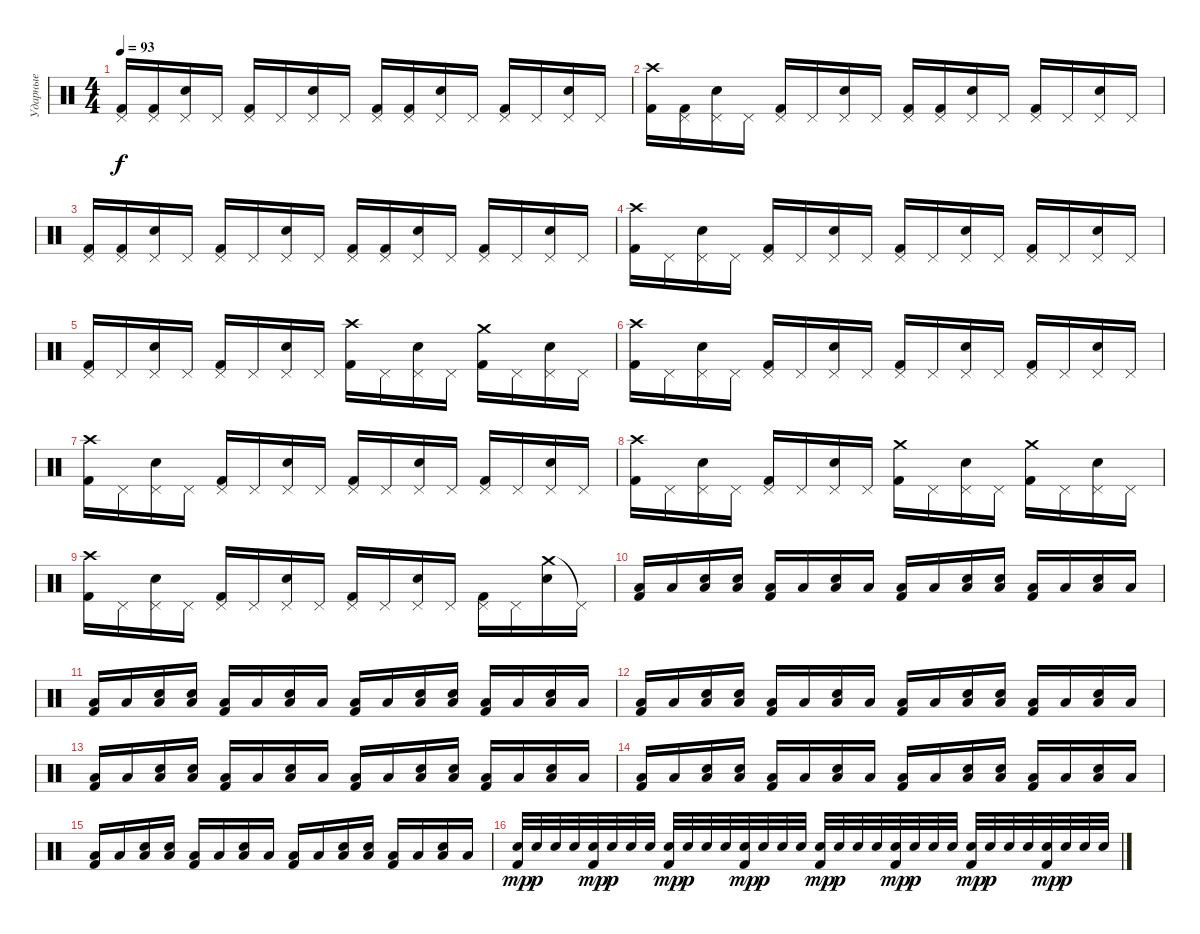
\track ("Ударные" "Ударные") {instrument percussion}
\staff {score}
\articulation defaults
\ts (4 4)
\tempo 93
\clef neutral
\ks c
("Pedal Hi-Hat (hit)" "Kick (hit) 2").16{dy f} ("Pedal Hi-Hat (hit)" "Kick (hit) 2").16 ("Pedal Hi-Hat (hit)" "Electric Snare (hit)").16 "Pedal Hi-Hat (hit)".16 ("Pedal Hi-Hat (hit)" "Kick (hit) 2").16 "Pedal Hi-Hat (hit)".16 ("Pedal Hi-Hat (hit)" "Electric Snare (hit)").16 "Pedal Hi-Hat (hit)".16 ("Pedal Hi-Hat (hit)" "Kick (hit) 2").16 ("Pedal Hi-Hat (hit)" "Kick (hit) 2").16 ("Pedal Hi-Hat (hit)" "Electric Snare (hit)").16 "Pedal Hi-Hat (hit)".16 ("Pedal Hi-Hat (hit)" "Kick (hit) 2").16 "Pedal Hi-Hat (hit)".16 ("Pedal Hi-Hat (hit)" "Electric Snare (hit)").16 "Pedal Hi-Hat (hit)".16 |
("Crash high (hit)" "Kick (hit) 2").16 ("Pedal Hi-Hat (hit)" "Kick (hit) 2").16 ("Pedal Hi-Hat (hit)" "Electric Snare (hit)").16 "Pedal Hi-Hat (hit)".16 ("Pedal Hi-Hat (hit)" "Kick (hit) 2").16 "Pedal Hi-Hat (hit)".16 ("Pedal Hi-Hat (hit)" "Electric Snare (hit)").16 "Pedal Hi-Hat (hit)".16 ("Pedal Hi-Hat (hit)" "Kick (hit) 2").16 ("Pedal Hi-Hat (hit)" "Kick (hit) 2").16 ("Pedal Hi-Hat (hit)" "Electric Snare (hit)").16 "Pedal Hi-Hat (hit)".16 ("Pedal Hi-Hat (hit)" "Kick (hit) 2").16 "Pedal Hi-Hat (hit)".16 ("Pedal Hi-Hat (hit)" "Electric Snare (hit)").16 "Pedal Hi-Hat (hit)".16 |
("Pedal Hi-Hat (hit)" "Kick (hit) 2").16 ("Pedal Hi-Hat (hit)" "Kick (hit) 2").16 ("Pedal Hi-Hat (hit)" "Electric Snare (hit)").16 "Pedal Hi-Hat (hit)".16 ("Pedal Hi-Hat (hit)" "Kick (hit) 2").16 "Pedal Hi-Hat (hit)".16 ("Pedal Hi-Hat (hit)" "Electric Snare (hit)").16 "Pedal Hi-Hat (hit)".16 ("Pedal Hi-Hat (hit)" "Kick (hit) 2").16 ("Pedal Hi-Hat (hit)" "Kick (hit) 2").16 ("Pedal Hi-Hat (hit)" "Electric Snare (hit)").16 "Pedal Hi-Hat (hit)".16 ("Pedal Hi-Hat (hit)" "Kick (hit) 2").16 "Pedal Hi-Hat (hit)".16 ("Pedal Hi-Hat (hit)" "Electric Snare (hit)").16 "Pedal Hi-Hat (hit)".16 |
("Crash high (hit)" "Kick (hit) 2").16 "Pedal Hi-Hat (hit)".16 ("Pedal Hi-Hat (hit)" "Electric Snare (hit)").16 "Pedal Hi-Hat (hit)".16 ("Pedal Hi-Hat (hit)" "Kick (hit) 2").16 "Pedal Hi-Hat (hit)".16 ("Pedal Hi-Hat (hit)" "Electric Snare (hit)").16 "Pedal Hi-Hat (hit)".16 ("Pedal Hi-Hat (hit)" "Kick (hit) 2").16 "Pedal Hi-Hat (hit)".16 ("Pedal Hi-Hat (hit)" "Electric Snare (hit)").16 "Pedal Hi-Hat (hit)".16 ("Pedal Hi-Hat (hit)" "Kick (hit) 2").16 "Pedal Hi-Hat (hit)".16 ("Pedal Hi-Hat (hit)" "Electric Snare (hit)").16 "Pedal Hi-Hat (hit)".16 |
("Pedal Hi-Hat (hit)" "Kick (hit) 2").16 "Pedal Hi-Hat (hit)".16 ("Pedal Hi-Hat (hit)" "Electric Snare (hit)").16 "Pedal Hi-Hat (hit)".16 ("Pedal Hi-Hat (hit)" "Kick (hit) 2").16 "Pedal Hi-Hat (hit)".16 ("Pedal Hi-Hat (hit)" "Electric Snare (hit)").16 "Pedal Hi-Hat (hit)".16 ("Crash high (hit)" "Kick (hit) 2").16 "Pedal Hi-Hat (hit)".16 ("Pedal Hi-Hat (hit)" "Electric Snare (hit)").16 "Pedal Hi-Hat (hit)".16 ("Crash medium (hit)" "Kick (hit) 2").16 "Pedal Hi-Hat (hit)".16 ("Pedal Hi-Hat (hit)" "Electric Snare (hit)").16 "Pedal Hi-Hat (hit)".16 |
("Crash high (hit)" "Kick (hit) 2").16 "Pedal Hi-Hat (hit)".16 ("Pedal Hi-Hat (hit)" "Electric Snare (hit)").16 "Pedal Hi-Hat (hit)".16 ("Pedal Hi-Hat (hit)" "Kick (hit) 2").16 "Pedal Hi-Hat (hit)".16 ("Pedal Hi-Hat (hit)" "Electric Snare (hit)").16 "Pedal Hi-Hat (hit)".16 ("Pedal Hi-Hat (hit)" "Kick (hit) 2").16 "Pedal Hi-Hat (hit)".16 ("Pedal Hi-Hat (hit)" "Electric Snare (hit)").16 "Pedal Hi-Hat (hit)".16 ("Pedal Hi-Hat (hit)" "Kick (hit) 2").16 "Pedal Hi-Hat (hit)".16 ("Pedal Hi-Hat (hit)" "Electric Snare (hit)").16 "Pedal Hi-Hat (hit)".16 |
("Crash high (hit)" "Kick (hit) 2").16 "Pedal Hi-Hat (hit)".16 ("Pedal Hi-Hat (hit)" "Electric Snare (hit)").16 "Pedal Hi-Hat (hit)".16 ("Pedal Hi-Hat (hit)" "Kick (hit) 2").16 "Pedal Hi-Hat (hit)".16 ("Pedal Hi-Hat (hit)" "Electric Snare (hit)").16 "Pedal Hi-Hat (hit)".16 ("Pedal Hi-Hat (hit)" "Kick (hit) 2").16 "Pedal Hi-Hat (hit)".16 ("Pedal Hi-Hat (hit)" "Electric Snare (hit)").16 "Pedal Hi-Hat (hit)".16 ("Pedal Hi-Hat (hit)" "Kick (hit) 2").16 "Pedal Hi-Hat (hit)".16 ("Pedal Hi-Hat (hit)" "Electric Snare (hit)").16 "Pedal Hi-Hat (hit)".16 |
("Crash high (hit)" "Kick (hit) 2").16 "Pedal Hi-Hat (hit)".16 ("Pedal Hi-Hat (hit)" "Electric Snare (hit)").16 "Pedal Hi-Hat (hit)".16 ("Pedal Hi-Hat (hit)" "Kick (hit) 2").16 "Pedal Hi-Hat (hit)".16 ("Pedal Hi-Hat (hit)" "Electric Snare (hit)").16 "Pedal Hi-Hat (hit)".16 ("Crash medium (hit)" "Kick (hit) 2").16 "Pedal Hi-Hat (hit)".16 ("Pedal Hi-Hat (hit)" "Electric Snare (hit)").16 "Pedal Hi-Hat (hit)".16 ("Crash medium (hit)" "Kick (hit) 2").16 "Pedal Hi-Hat (hit)".16 ("Pedal Hi-Hat (hit)" "Electric Snare (hit)").16 "Pedal Hi-Hat (hit)".16 |
("Crash high (hit)" "Kick (hit) 2").16 "Pedal Hi-Hat (hit)".16 ("Pedal Hi-Hat (hit)" "Electric Snare (hit)").16 "Pedal Hi-Hat (hit)".16 ("Pedal Hi-Hat (hit)" "Kick (hit) 2").16 "Pedal Hi-Hat (hit)".16 ("Pedal Hi-Hat (hit)" "Electric Snare (hit)").16 "Pedal Hi-Hat (hit)".16 ("Pedal Hi-Hat (hit)" "Kick (hit) 2").16 "Pedal Hi-Hat (hit)".16 ("Pedal Hi-Hat (hit)" "Electric Snare (hit)").16 "Pedal Hi-Hat (hit)".16 ("Pedal Hi-Hat (hit)" "Kick (hit) 2").16 "Pedal Hi-Hat (hit)".16 ("Crash medium (hit)" "Electric Snare (hit)").16 "Pedal Hi-Hat (hit)"{t}.16 |
("Low Floor Tom (hit)" "Kick (hit) 2").16 "Low Floor Tom (hit)".16 ("Low Floor Tom (hit)" "Electric Snare (hit)").16 ("Low Floor Tom (hit)" "Electric Snare (hit)").16 ("Low Floor Tom (hit)" "Kick (hit) 2").16 "Low Floor Tom (hit)".16 ("Low Floor Tom (hit)" "Electric Snare (hit)").16 "Low Floor Tom (hit)".16 ("Low Floor Tom (hit)" "Kick (hit) 2").16 "Low Floor Tom (hit)".16 ("Low Floor Tom (hit)" "Electric Snare (hit)").16 ("Low Floor Tom (hit)" "Electric Snare (hit)").16 ("Low Floor Tom (hit)" "Kick (hit) 2").16 "Low Floor Tom (hit)".16 ("Low Floor Tom (hit)" "Electric Snare (hit)").16 "Low Floor Tom (hit)".16 |
("Low Floor Tom (hit)" "Kick (hit) 2").16 "Low Floor Tom (hit)".16 ("Low Floor Tom (hit)" "Electric Snare (hit)").16 ("Low Floor Tom (hit)" "Electric Snare (hit)").16 ("Low Floor Tom (hit)" "Kick (hit) 2").16 "Low Floor Tom (hit)".16 ("Low Floor Tom (hit)" "Electric Snare (hit)").16 "Low Floor Tom (hit)".16 ("Low Floor Tom (hit)" "Kick (hit) 2").16 "Low Floor Tom (hit)".16 ("Low Floor Tom (hit)" "Electric Snare (hit)").16 ("Low Floor Tom (hit)" "Electric Snare (hit)").16 ("Low Floor Tom (hit)" "Kick (hit) 2").16 "Low Floor Tom (hit)".16 ("Low Floor Tom (hit)" "Electric Snare (hit)").16 "Low Floor Tom (hit)".16 |
("Low Floor Tom (hit)" "Kick (hit) 2").16 "Low Floor Tom (hit)".16 ("Low Floor Tom (hit)" "Electric Snare (hit)").16 ("Low Floor Tom (hit)" "Electric Snare (hit)").16 ("Low Floor Tom (hit)" "Kick (hit) 2").16 "Low Floor Tom (hit)".16 ("Low Floor Tom (hit)" "Electric Snare (hit)").16 "Low Floor Tom (hit)".16 ("Low Floor Tom (hit)" "Kick (hit) 2").16 "Low Floor Tom (hit)".16 ("Low Floor Tom (hit)" "Electric Snare (hit)").16 ("Low Floor Tom (hit)" "Electric Snare (hit)").16 ("Low Floor Tom (hit)" "Kick (hit) 2").16 "Low Floor Tom (hit)".16 ("Low Floor Tom (hit)" "Electric Snare (hit)").16 "Low Floor Tom (hit)".16 |
("Low Floor Tom (hit)" "Kick (hit) 2").16 "Low Floor Tom (hit)".16 ("Low Floor Tom (hit)" "Electric Snare (hit)").16 ("Low Floor Tom (hit)" "Electric Snare (hit)").16 ("Low Floor Tom (hit)" "Kick (hit) 2").16 "Low Floor Tom (hit)".16 ("Low Floor Tom (hit)" "Electric Snare (hit)").16 "Low Floor Tom (hit)".16 ("Low Floor Tom (hit)" "Kick (hit) 2").16 "Low Floor Tom (hit)".16 ("Low Floor Tom (hit)" "Electric Snare (hit)").16 ("Low Floor Tom (hit)" "Electric Snare (hit)").16 ("Low Floor Tom (hit)" "Kick (hit) 2").16 "Low Floor Tom (hit)".16 ("Low Floor Tom (hit)" "Electric Snare (hit)").16 "Low Floor Tom (hit)".16 |
("Low Floor Tom (hit)" "Kick (hit) 2").16 "Low Floor Tom (hit)".16 ("Low Floor Tom (hit)" "Electric Snare (hit)").16 ("Low Floor Tom (hit)" "Electric Snare (hit)").16 ("Low Floor Tom (hit)" "Kick (hit) 2").16 "Low Floor Tom (hit)".16 ("Low Floor Tom (hit)" "Electric Snare (hit)").16 "Low Floor Tom (hit)".16 ("Low Floor Tom (hit)" "Kick (hit) 2").16 "Low Floor Tom (hit)".16 ("Low Floor Tom (hit)" "Electric Snare (hit)").16 ("Low Floor Tom (hit)" "Electric Snare (hit)").16 ("Low Floor Tom (hit)" "Kick (hit) 2").16 "Low Floor Tom (hit)".16 ("Low Floor Tom (hit)" "Electric Snare (hit)").16 "Low Floor Tom (hit)".16 |
("Low Floor Tom (hit)" "Kick (hit) 2").16 "Low Floor Tom (hit)".16 ("Low Floor Tom (hit)" "Electric Snare (hit)").16 ("Low Floor Tom (hit)" "Electric Snare (hit)").16 ("Low Floor Tom (hit)" "Kick (hit) 2").16 "Low Floor Tom (hit)".16 ("Low Floor Tom (hit)" "Electric Snare (hit)").16 "Low Floor Tom (hit)".16 ("Low Floor Tom (hit)" "Kick (hit) 2").16 "Low Floor Tom (hit)".16 ("Low Floor Tom (hit)" "Electric Snare (hit)").16 ("Low Floor Tom (hit)" "Electric Snare (hit)").16 ("Low Floor Tom (hit)" "Kick (hit) 2").16 "Low Floor Tom (hit)".16 ("Low Floor Tom (hit)" "Electric Snare (hit)").16 "Low Floor Tom (hit)".16 |
("Electric Snare (hit)" "Kick (hit) 2").32{dy mp} "Electric Snare (hit)".32{dy p} "Electric Snare (hit)".32 "Electric Snare (hit)".32 ("Electric Snare (hit)" "Kick (hit) 2").32{dy mp} "Electric Snare (hit)".32{dy p} "Electric Snare (hit)".32 "Electric Snare (hit)".32 ("Electric Snare (hit)" "Kick (hit) 2").32{dy mp} "Electric Snare (hit)".32{dy p} "Electric Snare (hit)".32 "Electric Snare (hit)".32 ("Electric Snare (hit)" "Kick (hit) 2").32{dy mp} "Electric Snare (hit)".32{dy p} "Electric Snare (hit)".32 "Electric Snare (hit)".32 ("Electric Snare (hit)" "Kick (hit) 2").32{dy mp} "Electric Snare (hit)".32{dy p} "Electric Snare (hit)".32 "Electric Snare (hit)".32 ("Electric Snare (hit)" "Kick (hit) 2").32{dy mp} "Electric Snare (hit)".32{dy p} "Electric Snare (hit)".32 "Electric Snare (hit)".32 ("Electric Snare (hit)" "Kick (hit) 2").32{dy mp} "Electric Snare (hit)".32{dy p} "Electric Snare (hit)".32 "Electric Snare (hit)".32 ("Electric Snare (hit)" "Kick (hit) 2").32{dy mp} "Electric Snare (hit)".32{dy p} "Electric Snare (hit)".32 "Electric Snare (hit)".32
